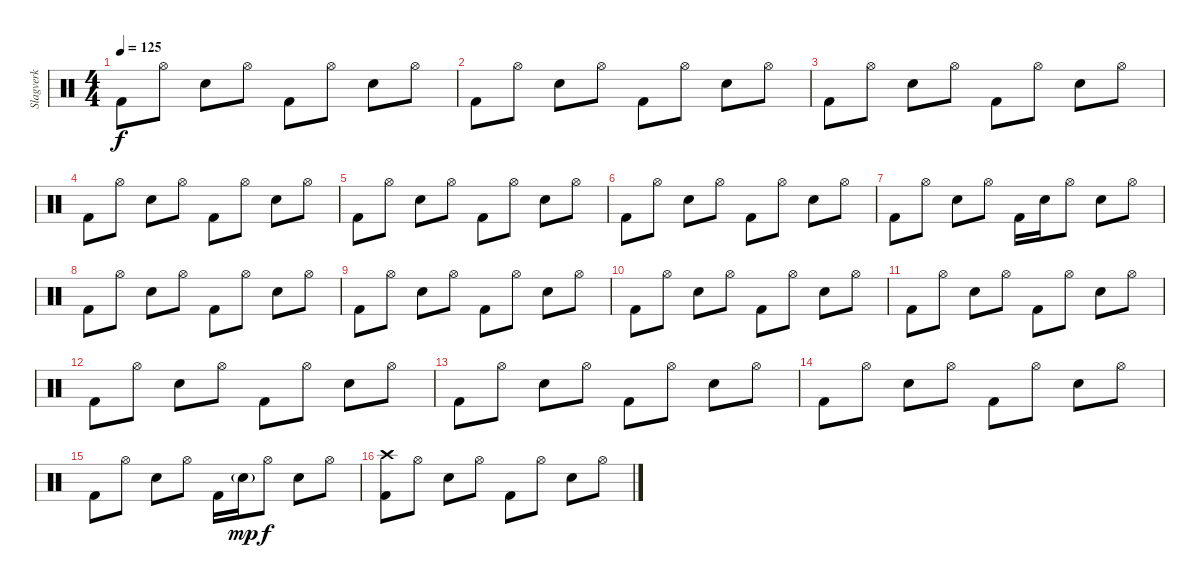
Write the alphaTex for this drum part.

\track ("Slagverk" "Slagverk") {instrument percussion}
\staff {score}
\articulation defaults
\ts (4 4)
\tempo 125
\clef neutral
\ks c "Kick (hit) 2".8{dy f} "Hi-Hat (open)".8 "Electric Snare (hit)".8 "Hi-Hat (open)".8 "Kick (hit) 2".8 "Hi-Hat (open)".8 "Electric Snare (hit)".8 "Hi-Hat (open)".8
|
"Kick (hit) 2".8 "Hi-Hat (open)".8 "Electric Snare (hit)".8 "Hi-Hat (open)".8 "Kick (hit) 2".8 "Hi-Hat (open)".8 "Electric Snare (hit)".8 "Hi-Hat (open)".8 |
"Kick (hit) 2".8 "Hi-Hat (open)".8 "Electric Snare (hit)".8 "Hi-Hat (open)".8 "Kick (hit) 2".8 "Hi-Hat (open)".8 "Electric Snare (hit)".8 "Hi-Hat (open)".8 |
"Kick (hit) 2".8 "Hi-Hat (open)".8 "Electric Snare (hit)".8 "Hi-Hat (open)".8 "Kick (hit) 2".8 "Hi-Hat (open)".8 "Electric Snare (hit)".8 "Hi-Hat (open)".8 |
"Kick (hit) 2".8 "Hi-Hat (open)".8 "Electric Snare (hit)".8 "Hi-Hat (open)".8 "Kick (hit) 2".8 "Hi-Hat (open)".8 "Electric Snare (hit)".8 "Hi-Hat (open)".8 |
"Kick (hit) 2".8 "Hi-Hat (open)".8 "Electric Snare (hit)".8 "Hi-Hat (open)".8 "Kick (hit) 2".8 "Hi-Hat (open)".8 "Electric Snare (hit)".8 "Hi-Hat (open)".8 |
"Kick (hit) 2".8 "Hi-Hat (open)".8 "Electric Snare (hit)".8 "Hi-Hat (open)".8 "Kick (hit) 2".16 "Electric Snare (hit)".16 "Hi-Hat (open)".8 "Electric Snare (hit)".8 "Hi-Hat (open)".8 |
"Kick (hit) 2".8 "Hi-Hat (open)".8 "Electric Snare (hit)".8 "Hi-Hat (open)".8 "Kick (hit) 2".8 "Hi-Hat (open)".8 "Electric Snare (hit)".8 "Hi-Hat (open)".8 |
"Kick (hit) 2".8 "Hi-Hat (open)".8 "Electric Snare (hit)".8 "Hi-Hat (open)".8 "Kick (hit) 2".8 "Hi-Hat (open)".8 "Electric Snare (hit)".8 "Hi-Hat (open)".8 |
"Kick (hit) 2".8 "Hi-Hat (open)".8 "Electric Snare (hit)".8 "Hi-Hat (open)".8 "Kick (hit) 2".8 "Hi-Hat (open)".8 "Electric Snare (hit)".8 "Hi-Hat (open)".8 |
"Kick (hit) 2".8 "Hi-Hat (open)".8 "Electric Snare (hit)".8 "Hi-Hat (open)".8 "Kick (hit) 2".8 "Hi-Hat (open)".8 "Electric Snare (hit)".8 "Hi-Hat (open)".8 |
"Kick (hit) 2".8 "Hi-Hat (open)".8 "Electric Snare (hit)".8 "Hi-Hat (open)".8 "Kick (hit) 2".8 "Hi-Hat (open)".8 "Electric Snare (hit)".8 "Hi-Hat (open)".8 |
"Kick (hit) 2".8 "Hi-Hat (open)".8 "Electric Snare (hit)".8 "Hi-Hat (open)".8 "Kick (hit) 2".8 "Hi-Hat (open)".8 "Electric Snare (hit)".8 "Hi-Hat (open)".8 |
"Kick (hit) 2".8 "Hi-Hat (open)".8 "Electric Snare (hit)".8 "Hi-Hat (open)".8 "Kick (hit) 2".8 "Hi-Hat (open)".8 "Electric Snare (hit)".8 "Hi-Hat (open)".8 |
"Kick (hit) 2".8 "Hi-Hat (open)".8 "Electric Snare (hit)".8 "Hi-Hat (open)".8 "Kick (hit) 2".16 "Electric Snare (hit)"{g}.16{dy mp} "Hi-Hat (open)".8{dy f} "Electric Snare (hit)".8 "Hi-Hat (open)".8 |
("Crash high (hit)" "Kick (hit) 2").8 "Hi-Hat (open)".8 "Electric Snare (hit)".8 "Hi-Hat (open)".8 "Kick (hit) 2".8 "Hi-Hat (open)".8 "Electric Snare (hit)".8 "Hi-Hat (open)".8
